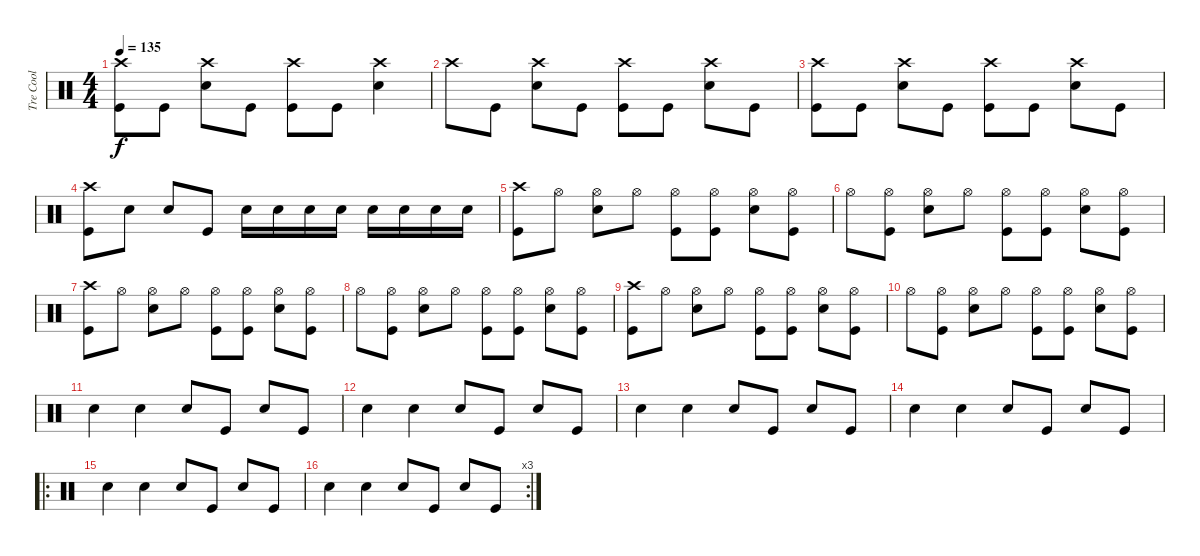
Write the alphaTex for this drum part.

\track ("Tre Cool" "Tre Cool") {instrument percussion}
\staff {score}
\articulation defaults
\ts (4 4)
\tempo 135
\clef neutral
\ks c
("Crash high (hit)" "Kick (hit)").8{dy f} "Kick (hit)".8 ("Crash high (hit)" "Snare (hit) 2").8 "Kick (hit)".8 ("Crash high (hit)" "Kick (hit)").8 "Kick (hit)".8 ("Crash high (hit)" "Snare (hit) 2").4 |
"Crash high (hit)".8 "Kick (hit)".8 ("Crash high (hit)" "Snare (hit) 2").8 "Kick (hit)".8 ("Crash high (hit)" "Kick (hit)").8 "Kick (hit)".8 ("Crash high (hit)" "Snare (hit) 2").8 "Kick (hit)".8 |
("Crash high (hit)" "Kick (hit)").8 "Kick (hit)".8 ("Crash high (hit)" "Snare (hit) 2").8 "Kick (hit)".8 ("Crash high (hit)" "Kick (hit)").8 "Kick (hit)".8 ("Crash high (hit)" "Snare (hit) 2").8 "Kick (hit)".8 |
("Crash high (hit)" "Kick (hit)").8 "Snare (hit) 2".8 "Snare (hit) 2".8 "Kick (hit)".8 "Snare (hit) 2".16 "Snare (hit) 2".16 "Snare (hit) 2".16 "Snare (hit) 2".16 "Snare (hit) 2".16 "Snare (hit) 2".16 "Snare (hit) 2".16 "Snare (hit) 2".16 |
("Crash high (hit)" "Kick (hit)").8 "Hi-Hat (open)".8 ("Hi-Hat (open)" "Snare (hit) 2").8 "Hi-Hat (open)".8 ("Hi-Hat (open)" "Kick (hit)").8 ("Hi-Hat (open)" "Kick (hit)").8 ("Hi-Hat (open)" "Snare (hit) 2").8 ("Hi-Hat (open)" "Kick (hit)").8 |
"Hi-Hat (open)".8 ("Hi-Hat (open)" "Kick (hit)").8 ("Hi-Hat (open)" "Snare (hit) 2").8 "Hi-Hat (open)".8 ("Hi-Hat (open)" "Kick (hit)").8 ("Hi-Hat (open)" "Kick (hit)").8 ("Hi-Hat (open)" "Snare (hit) 2").8 ("Hi-Hat (open)" "Kick (hit)").8 |
("Crash high (hit)" "Kick (hit)").8 "Hi-Hat (open)".8 ("Hi-Hat (open)" "Snare (hit) 2").8 "Hi-Hat (open)".8 ("Hi-Hat (open)" "Kick (hit)").8 ("Hi-Hat (open)" "Kick (hit)").8 ("Hi-Hat (open)" "Snare (hit) 2").8 ("Hi-Hat (open)" "Kick (hit)").8 |
"Hi-Hat (open)".8 ("Hi-Hat (open)" "Kick (hit)").8 ("Hi-Hat (open)" "Snare (hit) 2").8 "Hi-Hat (open)".8 ("Hi-Hat (open)" "Kick (hit)").8 ("Hi-Hat (open)" "Kick (hit)").8 ("Hi-Hat (open)" "Snare (hit) 2").8 ("Hi-Hat (open)" "Kick (hit)").8 |
("Crash high (hit)" "Kick (hit)").8 "Hi-Hat (open)".8 ("Hi-Hat (open)" "Snare (hit) 2").8 "Hi-Hat (open)".8 ("Hi-Hat (open)" "Kick (hit)").8 ("Hi-Hat (open)" "Kick (hit)").8 ("Hi-Hat (open)" "Snare (hit) 2").8 ("Hi-Hat (open)" "Kick (hit)").8 |
"Hi-Hat (open)".8 ("Hi-Hat (open)" "Kick (hit)").8 ("Hi-Hat (open)" "Snare (hit) 2").8 "Hi-Hat (open)".8 ("Hi-Hat (open)" "Kick (hit)").8 ("Hi-Hat (open)" "Kick (hit)").8 ("Hi-Hat (open)" "Snare (hit) 2").8 ("Hi-Hat (open)" "Kick (hit)").8 |
"Snare (hit) 2".4 "Snare (hit) 2".4 "Snare (hit) 2".8 "Kick (hit)".8 "Snare (hit) 2".8 "Kick (hit)".8 |
"Snare (hit) 2".4 "Snare (hit) 2".4 "Snare (hit) 2".8 "Kick (hit)".8 "Snare (hit) 2".8 "Kick (hit)".8 |
"Snare (hit) 2".4 "Snare (hit) 2".4 "Snare (hit) 2".8 "Kick (hit)".8 "Snare (hit) 2".8 "Kick (hit)".8 |
"Snare (hit) 2".4 "Snare (hit) 2".4 "Snare (hit) 2".8 "Kick (hit)".8 "Snare (hit) 2".8 "Kick (hit)".8 |
\ro "Snare (hit) 2".4 "Snare (hit) 2".4 "Snare (hit) 2".8 "Kick (hit)".8 "Snare (hit) 2".8 "Kick (hit)".8
|
\rc 3 "Snare (hit) 2".4 "Snare (hit) 2".4 "Snare (hit) 2".8 "Kick (hit)".8 "Snare (hit) 2".8 "Kick (hit)".8
